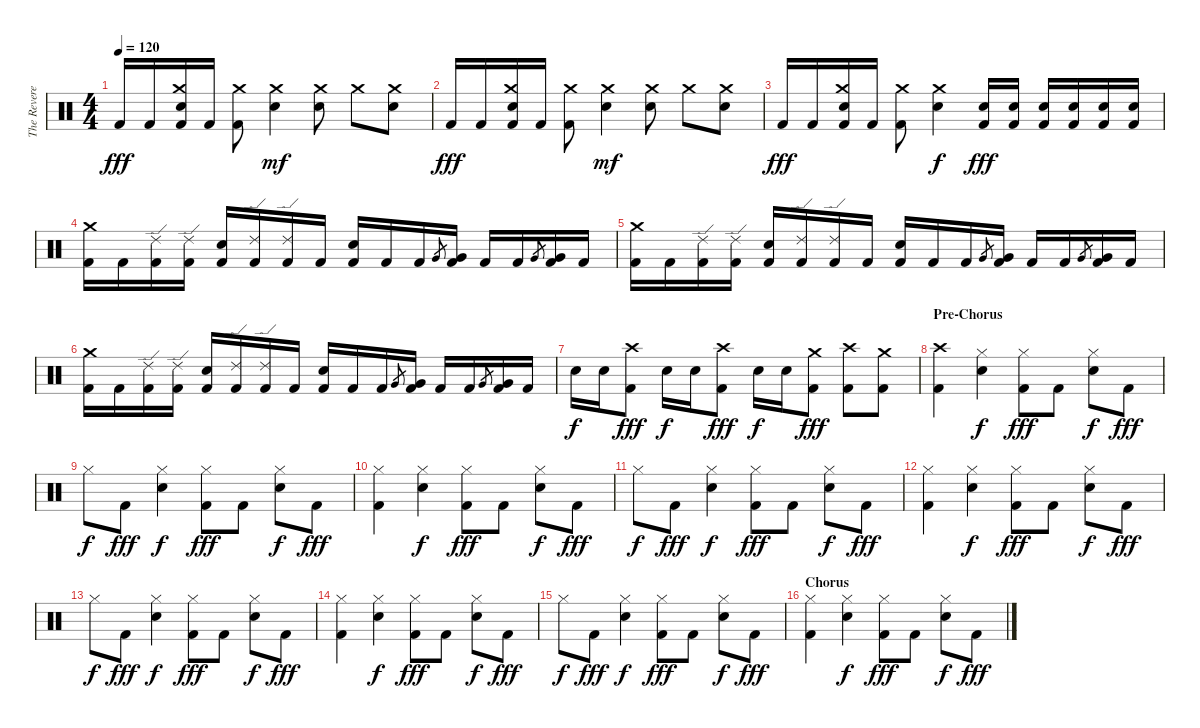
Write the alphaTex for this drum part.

\track ("The Reverend" "The Revere") {instrument percussion}
\staff {score}
\articulation defaults
\ts (4 4)
\tempo 120
\clef neutral
\ks c "Kick (hit) 2".16{dy fff} "Kick (hit) 2".16
("Crash medium (hit)" "Electric Snare (hit)" "Kick (hit) 2").16 "Kick (hit) 2".16 ("Crash medium (hit)" "Kick (hit) 2").8 ("Crash medium (hit)" "Electric Snare (hit)").4{dy mf} ("Crash medium (hit)" "Electric Snare (hit)").8 "Crash medium (hit)".8 ("Crash medium (hit)" "Electric Snare (hit)").8 |
"Kick (hit) 2".16{dy fff} "Kick (hit) 2".16 ("Crash medium (hit)" "Electric Snare (hit)" "Kick (hit) 2").16 "Kick (hit) 2".16 ("Crash medium (hit)" "Kick (hit) 2").8 ("Crash medium (hit)" "Electric Snare (hit)").4{dy mf} ("Crash medium (hit)" "Electric Snare (hit)").8 "Crash medium (hit)".8 ("Crash medium (hit)" "Electric Snare (hit)").8 |
"Kick (hit) 2".16{dy fff} "Kick (hit) 2".16 ("Crash medium (hit)" "Electric Snare (hit)" "Kick (hit) 2").16 "Kick (hit) 2".16 ("Crash medium (hit)" "Kick (hit) 2").8 ("Crash medium (hit)" "Electric Snare (hit)").4{dy f} ("Electric Snare (hit)" "Kick (hit) 2").16{dy fff} ("Electric Snare (hit)" "Kick (hit) 2").16 ("Electric Snare (hit)" "Kick (hit) 2").16 ("Electric Snare (hit)" "Kick (hit) 2").16 ("Electric Snare (hit)" "Kick (hit) 2").16 ("Electric Snare (hit)" "Kick (hit) 2").16 |
("Crash medium (hit)" "Kick (hit) 2").16 "Kick (hit) 2".16 ("Ride (edge) 2" "Kick (hit) 2").16 ("Ride (edge) 2" "Kick (hit) 2").16 ("Electric Snare (hit)" "Kick (hit) 2").16 ("Ride (edge) 2" "Kick (hit) 2").16 ("Ride (edge) 2" "Kick (hit) 2").16 "Kick (hit) 2".16 ("Electric Snare (hit)" "Kick (hit) 2").16 "Kick (hit) 2".16 "Kick (hit) 2".16 "Very Low Tom (hit)".8{gr} ("Very Low Tom (hit)" "Kick (hit) 2").16 "Kick (hit) 2".16 "Kick (hit) 2".16 "Very Low Tom (hit)".8{gr} ("Very Low Tom (hit)" "Kick (hit) 2").16 "Kick (hit) 2".16 |
("Crash medium (hit)" "Kick (hit) 2").16 "Kick (hit) 2".16 ("Ride (edge) 2" "Kick (hit) 2").16 ("Ride (edge) 2" "Kick (hit) 2").16 ("Electric Snare (hit)" "Kick (hit) 2").16 ("Ride (edge) 2" "Kick (hit) 2").16 ("Ride (edge) 2" "Kick (hit) 2").16 "Kick (hit) 2".16 ("Electric Snare (hit)" "Kick (hit) 2").16 "Kick (hit) 2".16 "Kick (hit) 2".16 "Very Low Tom (hit)".8{gr} ("Very Low Tom (hit)" "Kick (hit) 2").16 "Kick (hit) 2".16 "Kick (hit) 2".16 "Very Low Tom (hit)".8{gr} ("Very Low Tom (hit)" "Kick (hit) 2").16 "Kick (hit) 2".16 |
("Crash medium (hit)" "Kick (hit) 2").16 "Kick (hit) 2".16 ("Ride (edge) 2" "Kick (hit) 2").16 ("Ride (edge) 2" "Kick (hit) 2").16 ("Electric Snare (hit)" "Kick (hit) 2").16 ("Ride (edge) 2" "Kick (hit) 2").16 ("Ride (edge) 2" "Kick (hit) 2").16 "Kick (hit) 2".16 ("Electric Snare (hit)" "Kick (hit) 2").16 "Kick (hit) 2".16 "Kick (hit) 2".16 "Very Low Tom (hit)".8{gr} ("Very Low Tom (hit)" "Kick (hit) 2").16 "Kick (hit) 2".16 "Kick (hit) 2".16 "Very Low Tom (hit)".8{gr} ("Very Low Tom (hit)" "Kick (hit) 2").16 "Kick (hit) 2".16 |
"Electric Snare (hit)".16{dy f} "Electric Snare (hit)".16 ("Crash high (hit)" "Kick (hit) 2").8{dy fff} "Electric Snare (hit)".16{dy f} "Electric Snare (hit)".16 ("Crash high (hit)" "Kick (hit) 2").8{dy fff} "Electric Snare (hit)".16{dy f} "Electric Snare (hit)".16 ("Crash medium (hit)" "Kick (hit) 2").8{dy fff} ("Crash high (hit)" "Kick (hit) 2").8 ("Crash medium (hit)" "Kick (hit) 2").8 |
\section ("" "Pre-Chorus")
("Crash high (hit)" "Kick (hit) 2").4 ("Hi-Hat (closed)" "Electric Snare (hit)").4{dy f} ("Hi-Hat (closed)" "Kick (hit) 2").8{dy fff} "Kick (hit) 2".8 ("Hi-Hat (closed)" "Electric Snare (hit)").8{dy f} "Kick (hit) 2".8{dy fff} |
"Hi-Hat (closed)".8{dy f} "Kick (hit) 2".8{dy fff} ("Hi-Hat (closed)" "Electric Snare (hit)").4{dy f} ("Hi-Hat (closed)" "Kick (hit) 2").8{dy fff} "Kick (hit) 2".8 ("Hi-Hat (closed)" "Electric Snare (hit)").8{dy f} "Kick (hit) 2".8{dy fff} |
("Hi-Hat (closed)" "Kick (hit) 2").4 ("Hi-Hat (closed)" "Electric Snare (hit)").4{dy f} ("Hi-Hat (closed)" "Kick (hit) 2").8{dy fff} "Kick (hit) 2".8 ("Hi-Hat (closed)" "Electric Snare (hit)").8{dy f} "Kick (hit) 2".8{dy fff} |
"Hi-Hat (closed)".8{dy f} "Kick (hit) 2".8{dy fff} ("Hi-Hat (closed)" "Electric Snare (hit)").4{dy f} ("Hi-Hat (closed)" "Kick (hit) 2").8{dy fff} "Kick (hit) 2".8 ("Hi-Hat (closed)" "Electric Snare (hit)").8{dy f} "Kick (hit) 2".8{dy fff} |
("Hi-Hat (closed)" "Kick (hit) 2").4 ("Hi-Hat (closed)" "Electric Snare (hit)").4{dy f} ("Hi-Hat (closed)" "Kick (hit) 2").8{dy fff} "Kick (hit) 2".8 ("Hi-Hat (closed)" "Electric Snare (hit)").8{dy f} "Kick (hit) 2".8{dy fff} |
"Hi-Hat (closed)".8{dy f} "Kick (hit) 2".8{dy fff} ("Hi-Hat (closed)" "Electric Snare (hit)").4{dy f} ("Hi-Hat (closed)" "Kick (hit) 2").8{dy fff} "Kick (hit) 2".8 ("Hi-Hat (closed)" "Electric Snare (hit)").8{dy f} "Kick (hit) 2".8{dy fff} |
("Hi-Hat (closed)" "Kick (hit) 2").4 ("Hi-Hat (closed)" "Electric Snare (hit)").4{dy f} ("Hi-Hat (closed)" "Kick (hit) 2").8{dy fff} "Kick (hit) 2".8 ("Hi-Hat (closed)" "Electric Snare (hit)").8{dy f} "Kick (hit) 2".8{dy fff} |
"Hi-Hat (closed)".8{dy f} "Kick (hit) 2".8{dy fff} ("Hi-Hat (closed)" "Electric Snare (hit)").4{dy f} ("Hi-Hat (closed)" "Kick (hit) 2").8{dy fff} "Kick (hit) 2".8 ("Hi-Hat (closed)" "Electric Snare (hit)").8{dy f} "Kick (hit) 2".8{dy fff} |
\section ("" "Chorus")
("Hi-Hat (closed)" "Kick (hit) 2").4 ("Hi-Hat (closed)" "Electric Snare (hit)").4{dy f} ("Hi-Hat (closed)" "Kick (hit) 2").8{dy fff} "Kick (hit) 2".8 ("Hi-Hat (closed)" "Electric Snare (hit)").8{dy f} "Kick (hit) 2".8{dy fff}
